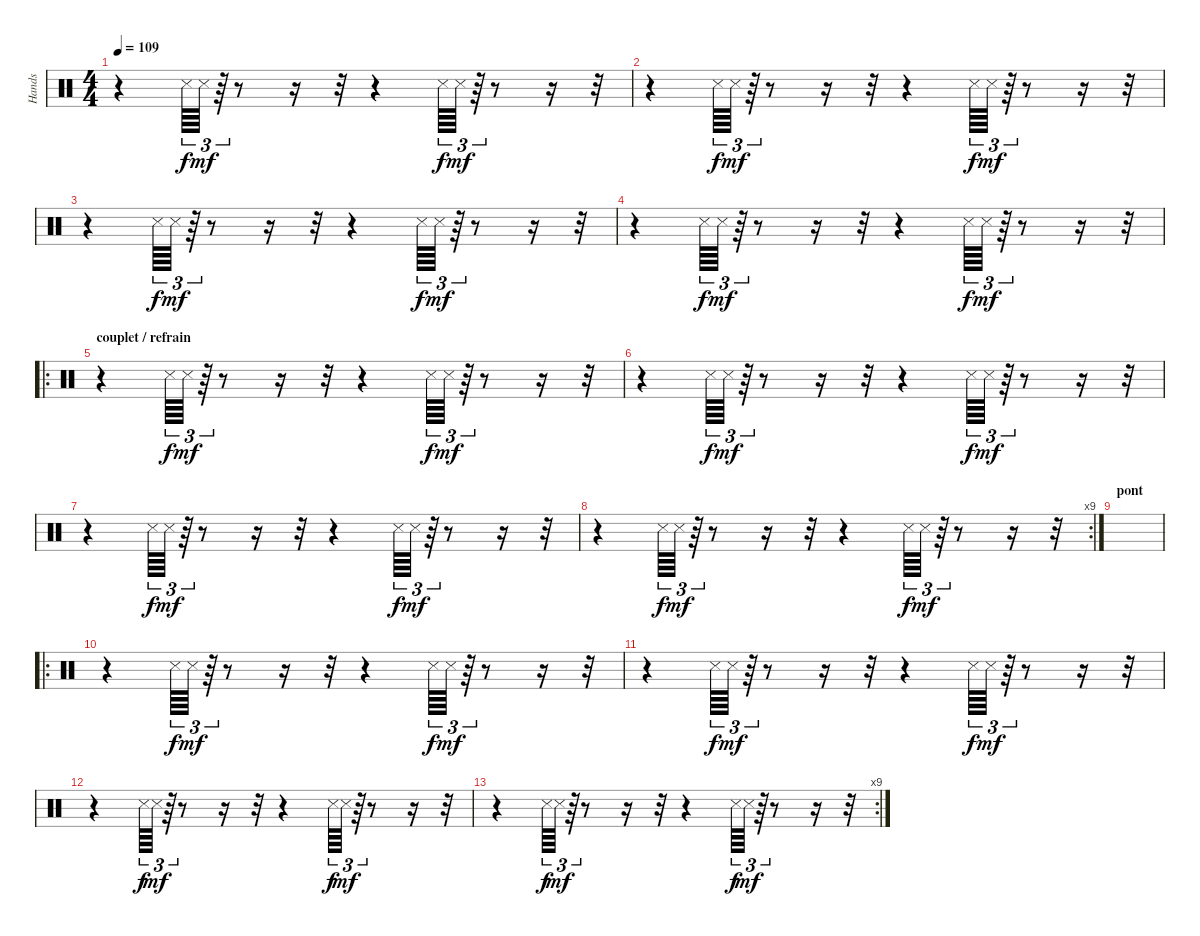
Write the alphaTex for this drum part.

\track ("Hands" "Hands") {instrument percussion}
\staff {score}
\articulation defaults
\ts (4 4)
\tempo 109
\clef neutral
\ks c
r.4{dy f} "Snare (side stick) 3".64{tu (3 2)} "Snare (side stick) 3".64{tu (3 2) dy mf} r.64{tu (3 2)} r.8 r.16 r.32 r.4 "Snare (side stick) 3".64{tu (3 2) dy f} "Snare (side stick) 3".64{tu (3 2) dy mf} r.64{tu (3 2)} r.8 r.16 r.32 |
r.4 "Snare (side stick) 3".64{tu (3 2) dy f} "Snare (side stick) 3".64{tu (3 2) dy mf} r.64{tu (3 2)} r.8 r.16 r.32 r.4 "Snare (side stick) 3".64{tu (3 2) dy f} "Snare (side stick) 3".64{tu (3 2) dy mf} r.64{tu (3 2)} r.8 r.16 r.32 |
r.4 "Snare (side stick) 3".64{tu (3 2) dy f} "Snare (side stick) 3".64{tu (3 2) dy mf} r.64{tu (3 2)} r.8 r.16 r.32 r.4 "Snare (side stick) 3".64{tu (3 2) dy f} "Snare (side stick) 3".64{tu (3 2) dy mf} r.64{tu (3 2)} r.8 r.16 r.32 |
r.4 "Snare (side stick) 3".64{tu (3 2) dy f} "Snare (side stick) 3".64{tu (3 2) dy mf} r.64{tu (3 2)} r.8 r.16 r.32 r.4 "Snare (side stick) 3".64{tu (3 2) dy f} "Snare (side stick) 3".64{tu (3 2) dy mf} r.64{tu (3 2)} r.8 r.16 r.32 |
\ro
\section ("" "couplet / refrain")
r.4 "Snare (side stick) 3".64{tu (3 2) dy f} "Snare (side stick) 3".64{tu (3 2) dy mf} r.64{tu (3 2)} r.8 r.16 r.32 r.4 "Snare (side stick) 3".64{tu (3 2) dy f} "Snare (side stick) 3".64{tu (3 2) dy mf} r.64{tu (3 2)} r.8 r.16 r.32 |
r.4 "Snare (side stick) 3".64{tu (3 2) dy f} "Snare (side stick) 3".64{tu (3 2) dy mf} r.64{tu (3 2)} r.8 r.16 r.32 r.4 "Snare (side stick) 3".64{tu (3 2) dy f} "Snare (side stick) 3".64{tu (3 2) dy mf} r.64{tu (3 2)} r.8 r.16 r.32 |
r.4 "Snare (side stick) 3".64{tu (3 2) dy f} "Snare (side stick) 3".64{tu (3 2) dy mf} r.64{tu (3 2)} r.8 r.16 r.32 r.4 "Snare (side stick) 3".64{tu (3 2) dy f} "Snare (side stick) 3".64{tu (3 2) dy mf} r.64{tu (3 2)} r.8 r.16 r.32 |
\rc 9
r.4 "Snare (side stick) 3".64{tu (3 2) dy f} "Snare (side stick) 3".64{tu (3 2) dy mf} r.64{tu (3 2)} r.8 r.16 r.32 r.4 "Snare (side stick) 3".64{tu (3 2) dy f} "Snare (side stick) 3".64{tu (3 2) dy mf} r.64{tu (3 2)} r.8 r.16 r.32 |
\section ("" "pont")
|
\ro
r.4 "Snare (side stick) 3".64{tu (3 2) dy f} "Snare (side stick) 3".64{tu (3 2) dy mf} r.64{tu (3 2)} r.8 r.16 r.32 r.4 "Snare (side stick) 3".64{tu (3 2) dy f} "Snare (side stick) 3".64{tu (3 2) dy mf} r.64{tu (3 2)} r.8 r.16 r.32 |
r.4 "Snare (side stick) 3".64{tu (3 2) dy f} "Snare (side stick) 3".64{tu (3 2) dy mf} r.64{tu (3 2)} r.8 r.16 r.32 r.4 "Snare (side stick) 3".64{tu (3 2) dy f} "Snare (side stick) 3".64{tu (3 2) dy mf} r.64{tu (3 2)} r.8 r.16 r.32 |
r.4 "Snare (side stick) 3".64{tu (3 2) dy f} "Snare (side stick) 3".64{tu (3 2) dy mf} r.64{tu (3 2)} r.8 r.16 r.32 r.4 "Snare (side stick) 3".64{tu (3 2) dy f} "Snare (side stick) 3".64{tu (3 2) dy mf} r.64{tu (3 2)} r.8 r.16 r.32 |
\rc 9
r.4 "Snare (side stick) 3".64{tu (3 2) dy f} "Snare (side stick) 3".64{tu (3 2) dy mf} r.64{tu (3 2)} r.8 r.16 r.32 r.4 "Snare (side stick) 3".64{tu (3 2) dy f} "Snare (side stick) 3".64{tu (3 2) dy mf} r.64{tu (3 2)} r.8 r.16 r.32
